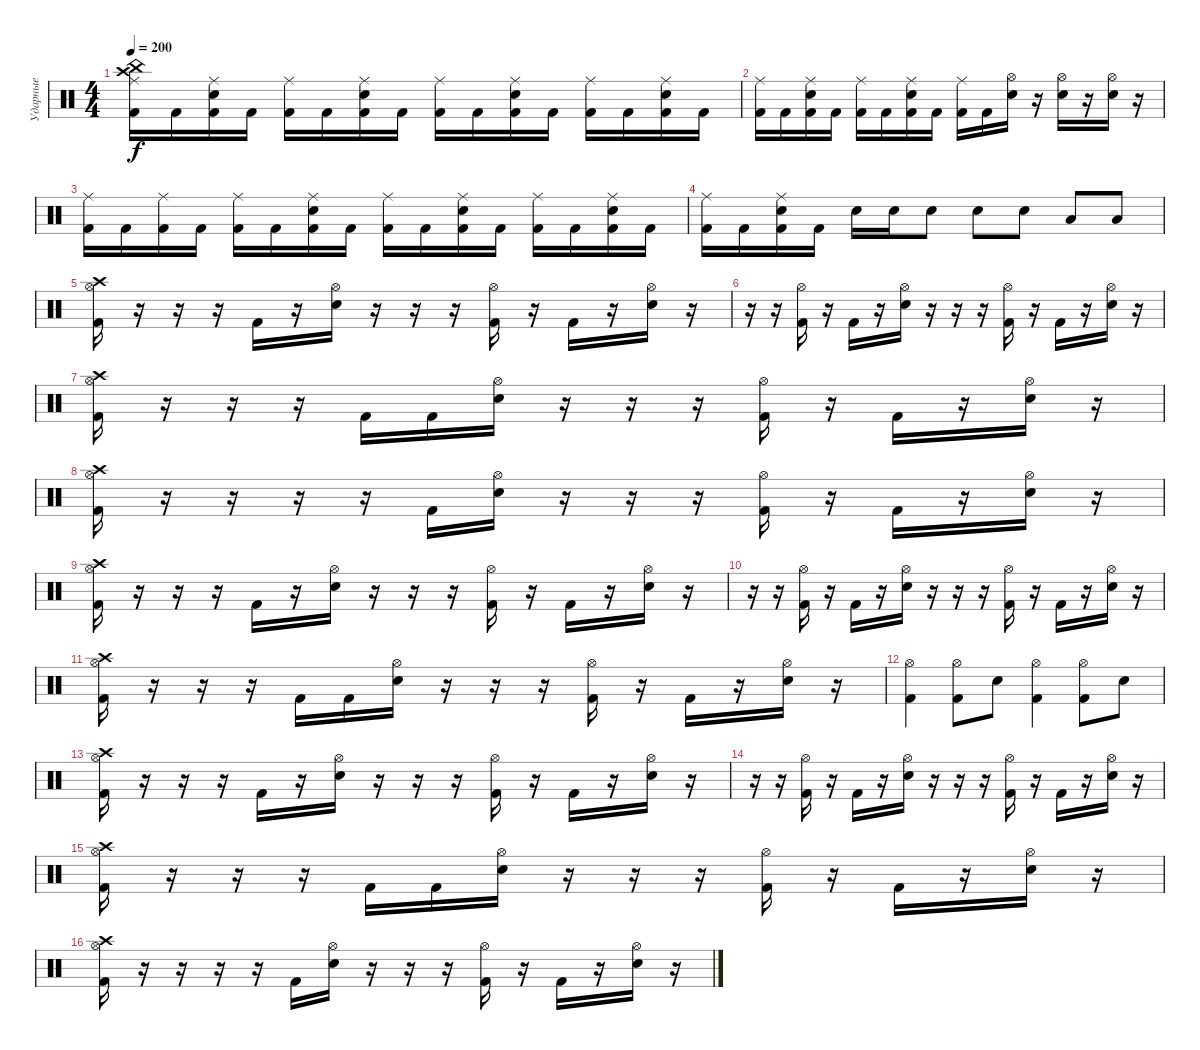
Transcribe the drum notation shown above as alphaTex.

\track ("Ударные" "Ударные") {instrument percussion}
\staff {score}
\articulation defaults
\ts (4 4)
\tempo 200
\clef neutral
\ks c
("Kick (hit) 2" "Ride (middle)" "China (hit)" "Crash high (hit)").16{dy f} "Kick (hit) 2".16 ("Kick (hit) 2" "Ride (middle)" "Electric Snare (hit)").16 "Kick (hit) 2".16 ("Kick (hit) 2" "Ride (middle)").16 "Kick (hit) 2".16 ("Kick (hit) 2" "Electric Snare (hit)" "Ride (middle)").16 "Kick (hit) 2".16 ("Kick (hit) 2" "Ride (middle)").16 "Kick (hit) 2".16 ("Kick (hit) 2" "Electric Snare (hit)" "Ride (middle)").16 "Kick (hit) 2".16 ("Kick (hit) 2" "Ride (middle)").16 "Kick (hit) 2".16 ("Kick (hit) 2" "Electric Snare (hit)" "Ride (middle)").16 "Kick (hit) 2".16 |
("Kick (hit) 2" "Ride (middle)").16 "Kick (hit) 2".16 ("Kick (hit) 2" "Ride (middle)" "Electric Snare (hit)").16 "Kick (hit) 2".16 ("Kick (hit) 2" "Ride (middle)").16 "Kick (hit) 2".16 ("Kick (hit) 2" "Electric Snare (hit)" "Ride (middle)").16 "Kick (hit) 2".16 ("Kick (hit) 2" "Ride (middle)").16 "Kick (hit) 2".16 ("Electric Snare (hit)" "Hi-Hat (open)").16 r.16 ("Electric Snare (hit)" "Hi-Hat (open)").16 r.16 ("Electric Snare (hit)" "Hi-Hat (open)").16 r.16 |
("Kick (hit) 2" "Ride (middle)").16 "Kick (hit) 2".16 ("Kick (hit) 2" "Ride (middle)").16 "Kick (hit) 2".16 ("Kick (hit) 2" "Ride (middle)").16 "Kick (hit) 2".16 ("Kick (hit) 2" "Electric Snare (hit)" "Ride (middle)").16 "Kick (hit) 2".16 ("Kick (hit) 2" "Ride (middle)").16 "Kick (hit) 2".16 ("Kick (hit) 2" "Electric Snare (hit)" "Ride (middle)").16 "Kick (hit) 2".16 ("Kick (hit) 2" "Ride (middle)").16 "Kick (hit) 2".16 ("Kick (hit) 2" "Electric Snare (hit)" "Ride (middle)").16 "Kick (hit) 2".16 |
("Kick (hit) 2" "Ride (middle)").16 "Kick (hit) 2".16 ("Kick (hit) 2" "Ride (middle)" "Electric Snare (hit)").16 "Kick (hit) 2".16 "Electric Snare (hit)".16 "Electric Snare (hit)".16 "Electric Snare (hit)".8 "Snare (hit) 2".8 "Snare (hit) 2".8 "Low Tom (hit)".8 "Low Tom (hit)".8 |
("Kick (hit) 2" "Hi-Hat (open)" "Crash high (hit)").16 r.16 r.16 r.16 "Kick (hit) 2".16 r.16 ("Electric Snare (hit)" "Hi-Hat (open)").16 r.16 r.16 r.16 ("Kick (hit) 2" "Hi-Hat (open)").16 r.16 "Kick (hit) 2".16 r.16 ("Electric Snare (hit)" "Hi-Hat (open)").16 r.16 |
r.16 r.16 ("Kick (hit) 2" "Hi-Hat (open)").16 r.16 "Kick (hit) 2".16 r.16 ("Electric Snare (hit)" "Hi-Hat (open)").16 r.16 r.16 r.16 ("Kick (hit) 2" "Hi-Hat (open)").16 r.16 "Kick (hit) 2".16 r.16 ("Electric Snare (hit)" "Hi-Hat (open)").16 r.16 |
("Kick (hit) 2" "Hi-Hat (open)" "Crash high (hit)").16 r.16 r.16 r.16 "Kick (hit) 2".16 "Kick (hit) 2".16 ("Electric Snare (hit)" "Hi-Hat (open)").16 r.16 r.16 r.16 ("Kick (hit) 2" "Hi-Hat (open)").16 r.16 "Kick (hit) 2".16 r.16 ("Electric Snare (hit)" "Hi-Hat (open)").16 r.16 |
("Kick (hit) 2" "Hi-Hat (open)" "Crash high (hit)").16 r.16 r.16 r.16 r.16 "Kick (hit) 2".16 ("Electric Snare (hit)" "Hi-Hat (open)").16 r.16 r.16 r.16 ("Kick (hit) 2" "Hi-Hat (open)").16 r.16 "Kick (hit) 2".16 r.16 ("Electric Snare (hit)" "Hi-Hat (open)").16 r.16 |
("Kick (hit) 2" "Hi-Hat (open)" "Crash high (hit)").16 r.16 r.16 r.16 "Kick (hit) 2".16 r.16 ("Electric Snare (hit)" "Hi-Hat (open)").16 r.16 r.16 r.16 ("Kick (hit) 2" "Hi-Hat (open)").16 r.16 "Kick (hit) 2".16 r.16 ("Electric Snare (hit)" "Hi-Hat (open)").16 r.16 |
r.16 r.16 ("Kick (hit) 2" "Hi-Hat (open)").16 r.16 "Kick (hit) 2".16 r.16 ("Electric Snare (hit)" "Hi-Hat (open)").16 r.16 r.16 r.16 ("Kick (hit) 2" "Hi-Hat (open)").16 r.16 "Kick (hit) 2".16 r.16 ("Electric Snare (hit)" "Hi-Hat (open)").16 r.16 |
("Kick (hit) 2" "Hi-Hat (open)" "Crash high (hit)").16 r.16 r.16 r.16 "Kick (hit) 2".16 "Kick (hit) 2".16 ("Electric Snare (hit)" "Hi-Hat (open)").16 r.16 r.16 r.16 ("Kick (hit) 2" "Hi-Hat (open)").16 r.16 "Kick (hit) 2".16 r.16 ("Electric Snare (hit)" "Hi-Hat (open)").16 r.16 |
("Kick (hit) 2" "Hi-Hat (open)").4 ("Kick (hit) 2" "Hi-Hat (open)").8 "Electric Snare (hit)".8 ("Kick (hit) 2" "Hi-Hat (open)").4 ("Kick (hit) 2" "Hi-Hat (open)").8 "Electric Snare (hit)".8 |
("Kick (hit) 2" "Hi-Hat (open)" "Crash high (hit)").16 r.16 r.16 r.16 "Kick (hit) 2".16 r.16 ("Electric Snare (hit)" "Hi-Hat (open)").16 r.16 r.16 r.16 ("Kick (hit) 2" "Hi-Hat (open)").16 r.16 "Kick (hit) 2".16 r.16 ("Electric Snare (hit)" "Hi-Hat (open)").16 r.16 |
r.16 r.16 ("Kick (hit) 2" "Hi-Hat (open)").16 r.16 "Kick (hit) 2".16 r.16 ("Electric Snare (hit)" "Hi-Hat (open)").16 r.16 r.16 r.16 ("Kick (hit) 2" "Hi-Hat (open)").16 r.16 "Kick (hit) 2".16 r.16 ("Electric Snare (hit)" "Hi-Hat (open)").16 r.16 |
("Kick (hit) 2" "Hi-Hat (open)" "Crash high (hit)").16 r.16 r.16 r.16 "Kick (hit) 2".16 "Kick (hit) 2".16 ("Electric Snare (hit)" "Hi-Hat (open)").16 r.16 r.16 r.16 ("Kick (hit) 2" "Hi-Hat (open)").16 r.16 "Kick (hit) 2".16 r.16 ("Electric Snare (hit)" "Hi-Hat (open)").16 r.16 |
("Kick (hit) 2" "Hi-Hat (open)" "Crash high (hit)").16 r.16 r.16 r.16 r.16 "Kick (hit) 2".16 ("Electric Snare (hit)" "Hi-Hat (open)").16 r.16 r.16 r.16 ("Kick (hit) 2" "Hi-Hat (open)").16 r.16 "Kick (hit) 2".16 r.16 ("Electric Snare (hit)" "Hi-Hat (open)").16 r.16
